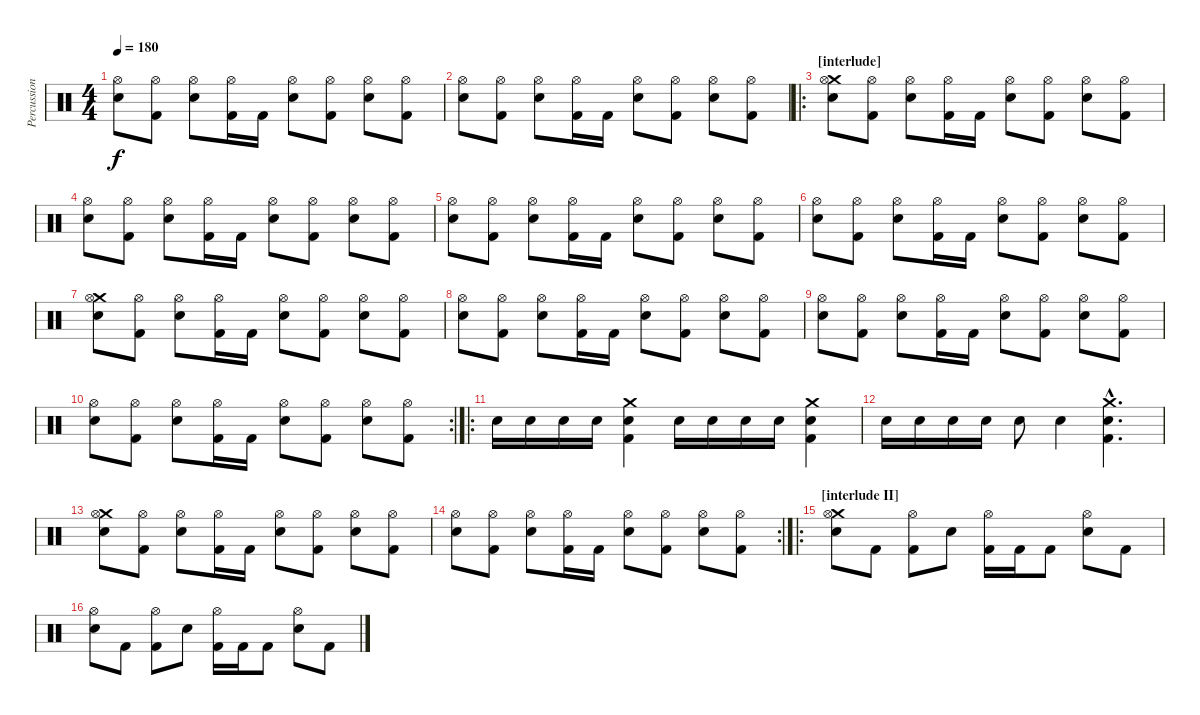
\track ("Percussion" "Percussion") {instrument percussion}
\staff {score}
\articulation defaults
\ts (4 4)
\tempo 180
\clef neutral
\ks c
("Hi-Hat (open)" "Electric Snare (hit)").8{dy f} ("Hi-Hat (open)" "Kick (hit) 2").8 ("Hi-Hat (open)" "Electric Snare (hit)").8 ("Hi-Hat (open)" "Kick (hit) 2").16 "Kick (hit) 2".16 ("Hi-Hat (open)" "Electric Snare (hit)").8 ("Hi-Hat (open)" "Kick (hit) 2").8 ("Hi-Hat (open)" "Electric Snare (hit)").8 ("Hi-Hat (open)" "Kick (hit) 2").8 |
("Hi-Hat (open)" "Electric Snare (hit)").8 ("Hi-Hat (open)" "Kick (hit) 2").8 ("Hi-Hat (open)" "Electric Snare (hit)").8 ("Hi-Hat (open)" "Kick (hit) 2").16 "Kick (hit) 2".16 ("Hi-Hat (open)" "Electric Snare (hit)").8 ("Hi-Hat (open)" "Kick (hit) 2").8 ("Hi-Hat (open)" "Electric Snare (hit)").8 ("Hi-Hat (open)" "Kick (hit) 2").8 |
\ro
\section ("" "[interlude]")
("Crash medium (hit)" "Hi-Hat (open)" "Electric Snare (hit)").8 ("Hi-Hat (open)" "Kick (hit) 2").8 ("Hi-Hat (open)" "Electric Snare (hit)").8 ("Hi-Hat (open)" "Kick (hit) 2").16 "Kick (hit) 2".16 ("Hi-Hat (open)" "Electric Snare (hit)").8 ("Hi-Hat (open)" "Kick (hit) 2").8 ("Hi-Hat (open)" "Electric Snare (hit)").8 ("Hi-Hat (open)" "Kick (hit) 2").8 |
("Hi-Hat (open)" "Electric Snare (hit)").8 ("Hi-Hat (open)" "Kick (hit) 2").8 ("Hi-Hat (open)" "Electric Snare (hit)").8 ("Hi-Hat (open)" "Kick (hit) 2").16 "Kick (hit) 2".16 ("Hi-Hat (open)" "Electric Snare (hit)").8 ("Hi-Hat (open)" "Kick (hit) 2").8 ("Hi-Hat (open)" "Electric Snare (hit)").8 ("Hi-Hat (open)" "Kick (hit) 2").8 |
("Hi-Hat (open)" "Electric Snare (hit)").8 ("Hi-Hat (open)" "Kick (hit) 2").8 ("Hi-Hat (open)" "Electric Snare (hit)").8 ("Hi-Hat (open)" "Kick (hit) 2").16 "Kick (hit) 2".16 ("Hi-Hat (open)" "Electric Snare (hit)").8 ("Hi-Hat (open)" "Kick (hit) 2").8 ("Hi-Hat (open)" "Electric Snare (hit)").8 ("Hi-Hat (open)" "Kick (hit) 2").8 |
("Hi-Hat (open)" "Electric Snare (hit)").8 ("Hi-Hat (open)" "Kick (hit) 2").8 ("Hi-Hat (open)" "Electric Snare (hit)").8 ("Hi-Hat (open)" "Kick (hit) 2").16 "Kick (hit) 2".16 ("Hi-Hat (open)" "Electric Snare (hit)").8 ("Hi-Hat (open)" "Kick (hit) 2").8 ("Hi-Hat (open)" "Electric Snare (hit)").8 ("Hi-Hat (open)" "Kick (hit) 2").8 |
("Crash medium (hit)" "Hi-Hat (open)" "Electric Snare (hit)").8 ("Hi-Hat (open)" "Kick (hit) 2").8 ("Hi-Hat (open)" "Electric Snare (hit)").8 ("Hi-Hat (open)" "Kick (hit) 2").16 "Kick (hit) 2".16 ("Hi-Hat (open)" "Electric Snare (hit)").8 ("Hi-Hat (open)" "Kick (hit) 2").8 ("Hi-Hat (open)" "Electric Snare (hit)").8 ("Hi-Hat (open)" "Kick (hit) 2").8 |
("Hi-Hat (open)" "Electric Snare (hit)").8 ("Hi-Hat (open)" "Kick (hit) 2").8 ("Hi-Hat (open)" "Electric Snare (hit)").8 ("Hi-Hat (open)" "Kick (hit) 2").16 "Kick (hit) 2".16 ("Hi-Hat (open)" "Electric Snare (hit)").8 ("Hi-Hat (open)" "Kick (hit) 2").8 ("Hi-Hat (open)" "Electric Snare (hit)").8 ("Hi-Hat (open)" "Kick (hit) 2").8 |
("Hi-Hat (open)" "Electric Snare (hit)").8 ("Hi-Hat (open)" "Kick (hit) 2").8 ("Hi-Hat (open)" "Electric Snare (hit)").8 ("Hi-Hat (open)" "Kick (hit) 2").16 "Kick (hit) 2".16 ("Hi-Hat (open)" "Electric Snare (hit)").8 ("Hi-Hat (open)" "Kick (hit) 2").8 ("Hi-Hat (open)" "Electric Snare (hit)").8 ("Hi-Hat (open)" "Kick (hit) 2").8 |
\rc 2
("Hi-Hat (open)" "Electric Snare (hit)").8 ("Hi-Hat (open)" "Kick (hit) 2").8 ("Hi-Hat (open)" "Electric Snare (hit)").8 ("Hi-Hat (open)" "Kick (hit) 2").16 "Kick (hit) 2".16 ("Hi-Hat (open)" "Electric Snare (hit)").8 ("Hi-Hat (open)" "Kick (hit) 2").8 ("Hi-Hat (open)" "Electric Snare (hit)").8 ("Hi-Hat (open)" "Kick (hit) 2").8 |
\ro "Electric Snare (hit)".16 "Electric Snare (hit)".16 "Electric Snare (hit)".16 "Electric Snare (hit)".16
("Crash medium (hit)" "Electric Snare (hit)" "Kick (hit) 2").4 "Electric Snare (hit)".16 "Electric Snare (hit)".16 "Electric Snare (hit)".16 "Electric Snare (hit)".16 ("Crash medium (hit)" "Electric Snare (hit)" "Kick (hit) 2").4 |
"Electric Snare (hit)".16 "Electric Snare (hit)".16 "Electric Snare (hit)".16 "Electric Snare (hit)".16 "Electric Snare (hit)".8 "Electric Snare (hit)".4 ("Crash medium (hit)"{hac} "Electric Snare (hit)"{hac} "Kick (hit) 2"{hac}).4{d} |
("Crash medium (hit)" "Hi-Hat (open)" "Electric Snare (hit)").8 ("Hi-Hat (open)" "Kick (hit) 2").8 ("Hi-Hat (open)" "Electric Snare (hit)").8 ("Hi-Hat (open)" "Kick (hit) 2").16 "Kick (hit) 2".16 ("Hi-Hat (open)" "Electric Snare (hit)").8 ("Hi-Hat (open)" "Kick (hit) 2").8 ("Hi-Hat (open)" "Electric Snare (hit)").8 ("Hi-Hat (open)" "Kick (hit) 2").8 |
\rc 2
("Hi-Hat (open)" "Electric Snare (hit)").8 ("Hi-Hat (open)" "Kick (hit) 2").8 ("Hi-Hat (open)" "Electric Snare (hit)").8 ("Hi-Hat (open)" "Kick (hit) 2").16 "Kick (hit) 2".16 ("Hi-Hat (open)" "Electric Snare (hit)").8 ("Hi-Hat (open)" "Kick (hit) 2").8 ("Hi-Hat (open)" "Electric Snare (hit)").8 ("Hi-Hat (open)" "Kick (hit) 2").8 |
\ro
\section ("" "[interlude II]")
("Crash medium (hit)" "Hi-Hat (open)" "Electric Snare (hit)").8 "Kick (hit) 2".8 ("Hi-Hat (open)" "Kick (hit) 2").8 "Electric Snare (hit)".8 ("Hi-Hat (open)" "Kick (hit) 2").16 "Kick (hit) 2".16 "Kick (hit) 2".8 ("Hi-Hat (open)" "Electric Snare (hit)").8 "Kick (hit) 2".8 |
("Hi-Hat (open)" "Electric Snare (hit)").8 "Kick (hit) 2".8 ("Hi-Hat (open)" "Kick (hit) 2").8 "Electric Snare (hit)".8 ("Hi-Hat (open)" "Kick (hit) 2").16 "Kick (hit) 2".16 "Kick (hit) 2".8 ("Hi-Hat (open)" "Electric Snare (hit)").8 "Kick (hit) 2".8
